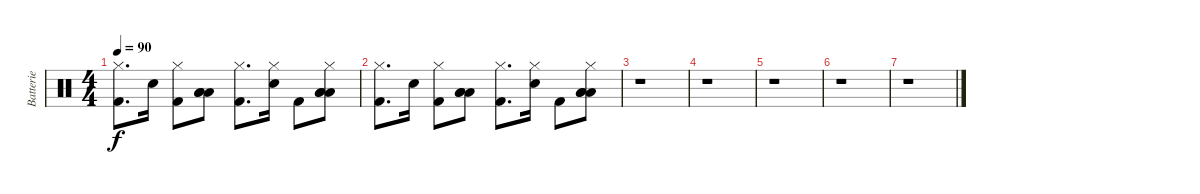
\track ("Batterie" "Batterie") {instrument percussion}
\staff {score}
\articulation defaults
\ts (4 4)
\tempo 90
\clef neutral
\ks c
("Kick (hit) 2" "Hi-Hat (closed)").8{d dy f} "Electric Snare (hit)".16 ("Kick (hit) 2" "Hi-Hat (closed)").8 ("Low Tom (hit)" "Low Tom (hit)" "Low Tom (hit)").8 ("Kick (hit) 2" "Hi-Hat (closed)").8{d} ("Electric Snare (hit)" "Hi-Hat (closed)").16 "Kick (hit) 2".8 ("Low Tom (hit)" "Low Tom (hit)" "Low Tom (hit)" "Hi-Hat (closed)").8 |
("Kick (hit) 2" "Hi-Hat (closed)").8{d} "Electric Snare (hit)".16 ("Kick (hit) 2" "Hi-Hat (closed)").8 ("Low Tom (hit)" "Low Tom (hit)" "Low Tom (hit)").8 ("Kick (hit) 2" "Hi-Hat (closed)").8{d} ("Electric Snare (hit)" "Hi-Hat (closed)").16 "Kick (hit) 2".8 ("Low Tom (hit)" "Low Tom (hit)" "Low Tom (hit)" "Hi-Hat (closed)").8 |
r.1 |
r.1 |
r.1 |
r.1 |
r.1
